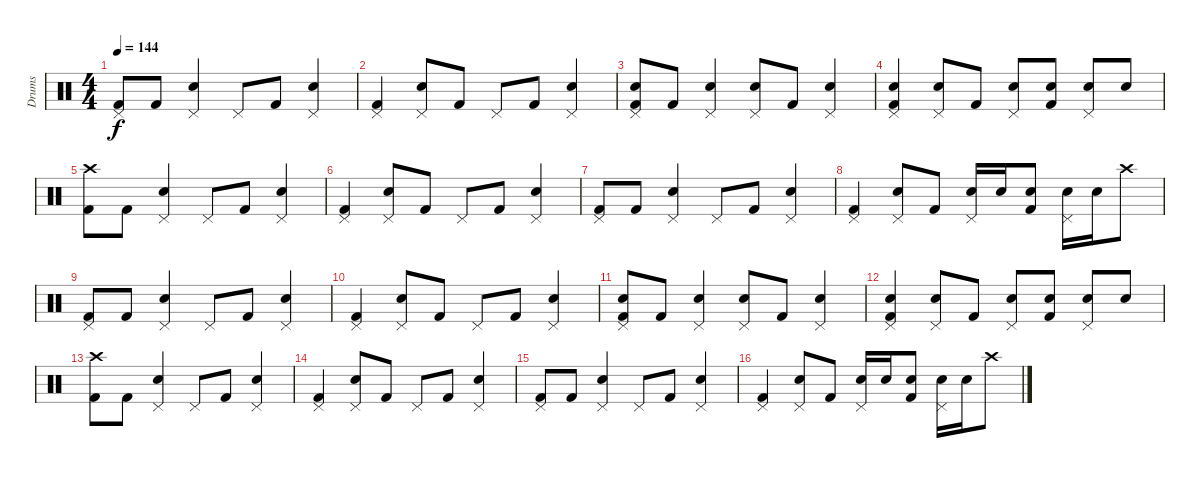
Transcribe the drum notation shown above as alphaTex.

\track ("Drums" "Drums") {instrument percussion}
\staff {score}
\articulation defaults
\ts (4 4)
\tempo 144
\clef neutral
\ks c
("Pedal Hi-Hat (hit)" "Kick (hit) 2").8{dy f} "Kick (hit) 2".8 ("Pedal Hi-Hat (hit)" "Electric Snare (hit)").4 "Pedal Hi-Hat (hit)".8 "Kick (hit) 2".8 ("Pedal Hi-Hat (hit)" "Electric Snare (hit)").4 |
("Kick (hit) 2" "Pedal Hi-Hat (hit)").4 ("Electric Snare (hit)" "Pedal Hi-Hat (hit)").8 "Kick (hit) 2".8 "Pedal Hi-Hat (hit)".8 "Kick (hit) 2".8 ("Electric Snare (hit)" "Pedal Hi-Hat (hit)").4 |
("Electric Snare (hit)" "Pedal Hi-Hat (hit)" "Kick (hit) 2").8 "Kick (hit) 2".8 ("Pedal Hi-Hat (hit)" "Electric Snare (hit)").4 ("Electric Snare (hit)" "Pedal Hi-Hat (hit)").8 "Kick (hit) 2".8 ("Pedal Hi-Hat (hit)" "Electric Snare (hit)").4 |
("Electric Snare (hit)" "Kick (hit) 2" "Pedal Hi-Hat (hit)").4 ("Electric Snare (hit)" "Pedal Hi-Hat (hit)").8 "Kick (hit) 2".8 ("Electric Snare (hit)" "Pedal Hi-Hat (hit)").8 ("Electric Snare (hit)" "Kick (hit) 2").8 ("Electric Snare (hit)" "Pedal Hi-Hat (hit)").8 "Electric Snare (hit)".8 |
("Kick (hit) 2" "Crash high (hit)").8 "Kick (hit) 2".8 ("Pedal Hi-Hat (hit)" "Electric Snare (hit)").4 "Pedal Hi-Hat (hit)".8 "Kick (hit) 2".8 ("Pedal Hi-Hat (hit)" "Electric Snare (hit)").4 |
("Kick (hit) 2" "Pedal Hi-Hat (hit)").4 ("Electric Snare (hit)" "Pedal Hi-Hat (hit)").8 "Kick (hit) 2".8 "Pedal Hi-Hat (hit)".8 "Kick (hit) 2".8 ("Electric Snare (hit)" "Pedal Hi-Hat (hit)").4 |
("Pedal Hi-Hat (hit)" "Kick (hit) 2").8 "Kick (hit) 2".8 ("Pedal Hi-Hat (hit)" "Electric Snare (hit)").4 "Pedal Hi-Hat (hit)".8 "Kick (hit) 2".8 ("Pedal Hi-Hat (hit)" "Electric Snare (hit)").4 |
("Kick (hit) 2" "Pedal Hi-Hat (hit)").4 ("Electric Snare (hit)" "Pedal Hi-Hat (hit)").8 "Kick (hit) 2".8 ("Electric Snare (hit)" "Pedal Hi-Hat (hit)").16 "Electric Snare (hit)".16 ("Electric Snare (hit)" "Kick (hit) 2").8 ("Electric Snare (hit)" "Pedal Hi-Hat (hit)").16 "Electric Snare (hit)".16 "Crash high (hit)".8 |
("Pedal Hi-Hat (hit)" "Kick (hit) 2").8 "Kick (hit) 2".8 ("Pedal Hi-Hat (hit)" "Electric Snare (hit)").4 "Pedal Hi-Hat (hit)".8 "Kick (hit) 2".8 ("Pedal Hi-Hat (hit)" "Electric Snare (hit)").4 |
("Kick (hit) 2" "Pedal Hi-Hat (hit)").4 ("Electric Snare (hit)" "Pedal Hi-Hat (hit)").8 "Kick (hit) 2".8 "Pedal Hi-Hat (hit)".8 "Kick (hit) 2".8 ("Electric Snare (hit)" "Pedal Hi-Hat (hit)").4 |
("Electric Snare (hit)" "Pedal Hi-Hat (hit)" "Kick (hit) 2").8 "Kick (hit) 2".8 ("Pedal Hi-Hat (hit)" "Electric Snare (hit)").4 ("Electric Snare (hit)" "Pedal Hi-Hat (hit)").8 "Kick (hit) 2".8 ("Pedal Hi-Hat (hit)" "Electric Snare (hit)").4 |
("Electric Snare (hit)" "Kick (hit) 2" "Pedal Hi-Hat (hit)").4 ("Electric Snare (hit)" "Pedal Hi-Hat (hit)").8 "Kick (hit) 2".8 ("Electric Snare (hit)" "Pedal Hi-Hat (hit)").8 ("Electric Snare (hit)" "Kick (hit) 2").8 ("Electric Snare (hit)" "Pedal Hi-Hat (hit)").8 "Electric Snare (hit)".8 |
("Crash high (hit)" "Kick (hit) 2").8 "Kick (hit) 2".8 ("Pedal Hi-Hat (hit)" "Electric Snare (hit)").4 "Pedal Hi-Hat (hit)".8 "Kick (hit) 2".8 ("Pedal Hi-Hat (hit)" "Electric Snare (hit)").4 |
("Kick (hit) 2" "Pedal Hi-Hat (hit)").4 ("Electric Snare (hit)" "Pedal Hi-Hat (hit)").8 "Kick (hit) 2".8 "Pedal Hi-Hat (hit)".8 "Kick (hit) 2".8 ("Electric Snare (hit)" "Pedal Hi-Hat (hit)").4 |
("Pedal Hi-Hat (hit)" "Kick (hit) 2").8 "Kick (hit) 2".8 ("Pedal Hi-Hat (hit)" "Electric Snare (hit)").4 "Pedal Hi-Hat (hit)".8 "Kick (hit) 2".8 ("Pedal Hi-Hat (hit)" "Electric Snare (hit)").4 |
("Kick (hit) 2" "Pedal Hi-Hat (hit)").4 ("Electric Snare (hit)" "Pedal Hi-Hat (hit)").8 "Kick (hit) 2".8 ("Electric Snare (hit)" "Pedal Hi-Hat (hit)").16 "Electric Snare (hit)".16 ("Electric Snare (hit)" "Kick (hit) 2").8 ("Electric Snare (hit)" "Pedal Hi-Hat (hit)").16 "Electric Snare (hit)".16 "Crash high (hit)".8
